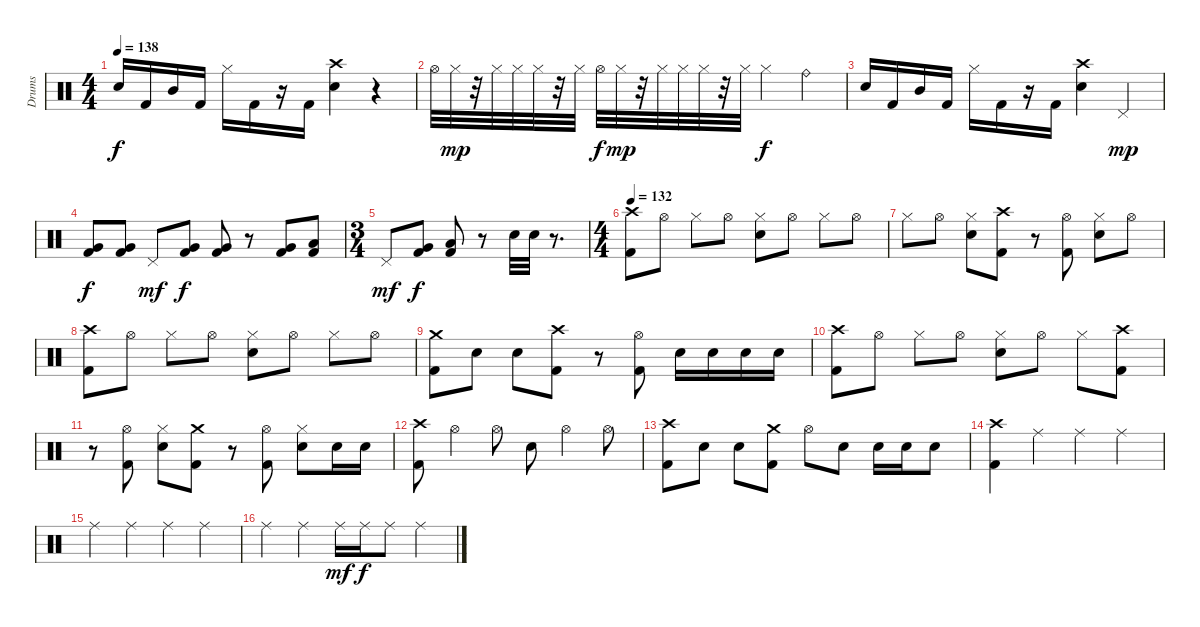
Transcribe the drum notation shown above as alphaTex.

\track ("Drums" "Drums") {instrument percussion}
\staff {score}
\articulation defaults
\ts (4 4)
\tempo 138
\clef neutral
\ks c "Electric Snare (hit)".16{dy f} "Kick (hit) 2".16 "Mid Tom (hit)".16 "Kick (hit) 2".16 "Hi-Hat (closed)".16 "Kick (hit) 2".16
r.16 "Kick (hit) 2".16 ("Crash high (hit)" "Electric Snare (hit)").4 r.4 |
"Hi-Hat (open)".32 "Hi-Hat (closed)".32{dy mp} r.32 "Hi-Hat (closed)".32 "Hi-Hat (closed)".32 "Hi-Hat (closed)".32 r.32 "Hi-Hat (closed)".32 "Hi-Hat (open)".32{dy f} "Hi-Hat (closed)".32{dy mp} r.32 "Hi-Hat (closed)".32 "Hi-Hat (closed)".32 "Hi-Hat (closed)".32 r.32 "Hi-Hat (closed)".32 "Hi-Hat (closed)".4{dy f} "Ride (bell)".4 |
"Electric Snare (hit)".16 "Kick (hit) 2".16 "Mid Tom (hit)".16 "Kick (hit) 2".16 "Hi-Hat (closed)".16 "Kick (hit) 2".16 r.16 "Kick (hit) 2".16 ("Crash high (hit)" "Electric Snare (hit)").4 "Pedal Hi-Hat (hit)".4{dy mp} |
("Kick (hit) 2" "Very Low Tom (hit)").8{dy f} ("Very Low Tom (hit)" "Kick (hit) 2").8 "Pedal Hi-Hat (hit)".8{dy mf} ("Very Low Tom (hit)" "Kick (hit) 2").8{dy f} ("Very Low Tom (hit)" "Kick (hit) 2").8 r.8 ("Very Low Tom (hit)" "Kick (hit) 2").8 ("Kick (hit) 2" "Low Floor Tom (hit)").8 |
\ts (3 4)
"Pedal Hi-Hat (hit)".8{dy mf} ("Very Low Tom (hit)" "Kick (hit) 2").8{dy f} ("Low Floor Tom (hit)" "Kick (hit) 2").8 r.8 "Electric Snare (hit)".32 "Electric Snare (hit)".32 r.8{d} |
\ts (4 4)
\tempo 132
("Crash high (hit)" "Kick (hit) 2").8 "Hi-Hat (open)".8 "Hi-Hat (closed)".8 "Hi-Hat (open)".8 ("Hi-Hat (closed)" "Electric Snare (hit)").8 "Hi-Hat (open)".8 "Hi-Hat (closed)".8 "Hi-Hat (open)".8 |
"Hi-Hat (closed)".8 "Hi-Hat (open)".8 ("Hi-Hat (closed)" "Electric Snare (hit)").8 ("Crash high (hit)" "Kick (hit) 2").8 r.8 ("Hi-Hat (open)" "Kick (hit) 2").8 ("Electric Snare (hit)" "Hi-Hat (closed)").8 "Hi-Hat (open)".8 |
("Kick (hit) 2" "Crash high (hit)").8 "Hi-Hat (open)".8 "Hi-Hat (closed)".8 "Hi-Hat (open)".8 ("Hi-Hat (closed)" "Electric Snare (hit)").8 "Hi-Hat (open)".8 "Hi-Hat (closed)".8 "Hi-Hat (open)".8 |
("Kick (hit) 2" "Crash medium (hit)").8 "Electric Snare (hit)".8 "Electric Snare (hit)".8 ("Kick (hit) 2" "Crash high (hit)").8 r.8 ("Kick (hit) 2" "Hi-Hat (open)").8 "Electric Snare (hit)".16 "Electric Snare (hit)".16 "Electric Snare (hit)".16 "Electric Snare (hit)".16 |
("Crash high (hit)" "Kick (hit) 2").8 "Hi-Hat (open)".8 "Hi-Hat (closed)".8 "Hi-Hat (open)".8 ("Hi-Hat (closed)" "Electric Snare (hit)").8 "Hi-Hat (open)".8 "Hi-Hat (closed)".8 ("Crash high (hit)" "Kick (hit) 2").8 |
r.8 ("Hi-Hat (open)" "Kick (hit) 2").8 ("Electric Snare (hit)" "Hi-Hat (closed)").8 ("Crash medium (hit)" "Kick (hit) 2").8 r.8 ("Kick (hit) 2" "Hi-Hat (open)").8 ("Electric Snare (hit)" "Hi-Hat (closed)").8 "Electric Snare (hit)".16 "Electric Snare (hit)".16 |
("Kick (hit) 2" "Crash high (hit)").8 "Hi-Hat (open)".4 "Hi-Hat (open)".8 "Electric Snare (hit)".8 "Hi-Hat (open)".4 "Hi-Hat (open)".8 |
("Kick (hit) 2" "Crash high (hit)").8 "Electric Snare (hit)".8 "Electric Snare (hit)".8 ("Kick (hit) 2" "Crash medium (hit)").8 "Hi-Hat (open)".8 "Electric Snare (hit)".8 "Electric Snare (hit)".16 "Electric Snare (hit)".16 "Electric Snare (hit)".8 |
("Kick (hit) 2" "Crash high (hit)").4 "Ride (middle)".4 "Ride (middle)".4 "Ride (middle)".4 |
"Ride (middle)".4 "Ride (middle)".4 "Ride (middle)".4 "Ride (middle)".4 |
"Ride (middle)".4 "Ride (middle)".4 "Ride (middle)".16{dy mf} "Ride (middle)".16{dy f} "Ride (middle)".8 "Ride (middle)".4
